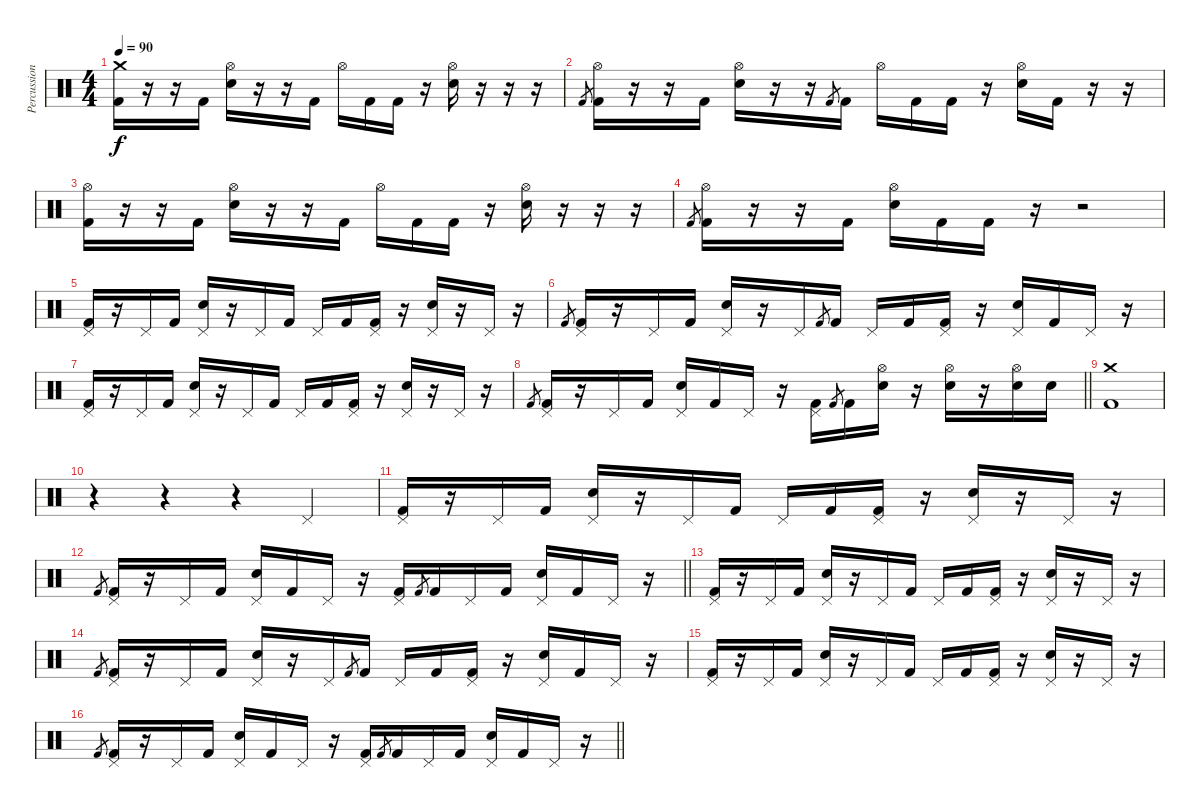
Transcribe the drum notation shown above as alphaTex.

\track ("Percussion" "Percussion") {instrument percussion}
\staff {score}
\articulation defaults
\ts (4 4)
\tempo 90
\clef neutral
\ks c
("Crash medium (hit)" "Kick (hit) 2").16{dy f} r.16 r.16 "Kick (hit) 2".16 ("Hi-Hat (open)" "Snare (hit) 2").16 r.16 r.16 "Kick (hit) 2".16 "Hi-Hat (open)".16 "Kick (hit) 2".16 "Kick (hit) 2".16 r.16 ("Hi-Hat (open)" "Snare (hit) 2").16 r.16 r.16 r.16 |
"Kick (hit) 2".8{gr} ("Hi-Hat (open)" "Kick (hit) 2").16 r.16 r.16 "Kick (hit) 2".16 ("Hi-Hat (open)" "Snare (hit) 2").16 r.16 r.16 "Kick (hit) 2".8{gr} "Kick (hit) 2".16 "Hi-Hat (open)".16 "Kick (hit) 2".16 "Kick (hit) 2".16 r.16 ("Hi-Hat (open)" "Snare (hit) 2").16 "Kick (hit) 2".16 r.16 r.16 |
("Hi-Hat (open)" "Kick (hit) 2").16 r.16 r.16 "Kick (hit) 2".16 ("Hi-Hat (open)" "Snare (hit) 2").16 r.16 r.16 "Kick (hit) 2".16 "Hi-Hat (open)".16 "Kick (hit) 2".16 "Kick (hit) 2".16 r.16 ("Hi-Hat (open)" "Snare (hit) 2").16 r.16 r.16 r.16 |
"Kick (hit) 2".8{gr} ("Hi-Hat (open)" "Kick (hit) 2").16 r.16 r.16 "Kick (hit) 2".16 ("Hi-Hat (open)" "Snare (hit) 2").16 "Kick (hit) 2".16 "Kick (hit) 2".16 r.16 r.2 |
("Pedal Hi-Hat (hit)" "Kick (hit) 2").16 r.16 "Pedal Hi-Hat (hit)".16 "Kick (hit) 2".16 ("Pedal Hi-Hat (hit)" "Snare (hit) 2").16 r.16 "Pedal Hi-Hat (hit)".16 "Kick (hit) 2".16 "Pedal Hi-Hat (hit)".16 "Kick (hit) 2".16 ("Pedal Hi-Hat (hit)" "Kick (hit) 2").16 r.16 ("Pedal Hi-Hat (hit)" "Snare (hit) 2").16 r.16 "Pedal Hi-Hat (hit)".16 r.16 |
"Kick (hit) 2".8{gr} ("Pedal Hi-Hat (hit)" "Kick (hit) 2").16 r.16 "Pedal Hi-Hat (hit)".16 "Kick (hit) 2".16 ("Pedal Hi-Hat (hit)" "Snare (hit) 2").16 r.16 "Pedal Hi-Hat (hit)".16 "Kick (hit) 2".8{gr} "Kick (hit) 2".16 "Pedal Hi-Hat (hit)".16 "Kick (hit) 2".16 ("Pedal Hi-Hat (hit)" "Kick (hit) 2").16 r.16 ("Pedal Hi-Hat (hit)" "Snare (hit) 2").16 "Kick (hit) 2".16 "Pedal Hi-Hat (hit)".16 r.16 |
("Pedal Hi-Hat (hit)" "Kick (hit) 2").16 r.16 "Pedal Hi-Hat (hit)".16 "Kick (hit) 2".16 ("Pedal Hi-Hat (hit)" "Snare (hit) 2").16 r.16 "Pedal Hi-Hat (hit)".16 "Kick (hit) 2".16 "Pedal Hi-Hat (hit)".16 "Kick (hit) 2".16 ("Pedal Hi-Hat (hit)" "Kick (hit) 2").16 r.16 ("Pedal Hi-Hat (hit)" "Snare (hit) 2").16 r.16 "Pedal Hi-Hat (hit)".16 r.16 |
\barLineRight lightlight "Kick (hit) 2".8{gr}
("Pedal Hi-Hat (hit)" "Kick (hit) 2").16 r.16 "Pedal Hi-Hat (hit)".16 "Kick (hit) 2".16 ("Pedal Hi-Hat (hit)" "Snare (hit) 2").16 "Kick (hit) 2".16 "Pedal Hi-Hat (hit)".16 r.16 ("Pedal Hi-Hat (hit)" "Kick (hit) 2").16 "Kick (hit) 2".8{gr} "Kick (hit) 2".16 ("Hi-Hat (open)" "Snare (hit) 2").16 r.16 ("Hi-Hat (open)" "Snare (hit) 2").16 r.16 ("Hi-Hat (open)" "Snare (hit) 2").16 "Snare (hit) 2".16 |
("Crash medium (hit)" "Kick (hit) 2").1 |
r.4 r.4 r.4 "Pedal Hi-Hat (hit)".4 |
("Pedal Hi-Hat (hit)" "Kick (hit) 2").16 r.16 "Pedal Hi-Hat (hit)".16 "Kick (hit) 2".16 ("Pedal Hi-Hat (hit)" "Snare (hit) 2").16 r.16 "Pedal Hi-Hat (hit)".16 "Kick (hit) 2".16 "Pedal Hi-Hat (hit)".16 "Kick (hit) 2".16 ("Pedal Hi-Hat (hit)" "Kick (hit) 2").16 r.16 ("Pedal Hi-Hat (hit)" "Snare (hit) 2").16 r.16 "Pedal Hi-Hat (hit)".16 r.16 |
\barLineRight lightlight "Kick (hit) 2".8{gr}
("Pedal Hi-Hat (hit)" "Kick (hit) 2").16 r.16 "Pedal Hi-Hat (hit)".16 "Kick (hit) 2".16 ("Pedal Hi-Hat (hit)" "Snare (hit) 2").16 "Kick (hit) 2".16 "Pedal Hi-Hat (hit)".16 r.16 ("Pedal Hi-Hat (hit)" "Kick (hit) 2").16 "Kick (hit) 2".8{gr} "Kick (hit) 2".16 "Pedal Hi-Hat (hit)".16 "Kick (hit) 2".16 ("Pedal Hi-Hat (hit)" "Snare (hit) 2").16 "Kick (hit) 2".16 "Pedal Hi-Hat (hit)".16 r.16 |
("Pedal Hi-Hat (hit)" "Kick (hit) 2").16 r.16 "Pedal Hi-Hat (hit)".16 "Kick (hit) 2".16 ("Pedal Hi-Hat (hit)" "Snare (hit) 2").16 r.16 "Pedal Hi-Hat (hit)".16 "Kick (hit) 2".16 "Pedal Hi-Hat (hit)".16 "Kick (hit) 2".16 ("Pedal Hi-Hat (hit)" "Kick (hit) 2").16 r.16 ("Pedal Hi-Hat (hit)" "Snare (hit) 2").16 r.16 "Pedal Hi-Hat (hit)".16 r.16 |
"Kick (hit) 2".8{gr} ("Pedal Hi-Hat (hit)" "Kick (hit) 2").16 r.16 "Pedal Hi-Hat (hit)".16 "Kick (hit) 2".16 ("Pedal Hi-Hat (hit)" "Snare (hit) 2").16 r.16 "Pedal Hi-Hat (hit)".16 "Kick (hit) 2".8{gr} "Kick (hit) 2".16 "Pedal Hi-Hat (hit)".16 "Kick (hit) 2".16 ("Pedal Hi-Hat (hit)" "Kick (hit) 2").16 r.16 ("Pedal Hi-Hat (hit)" "Snare (hit) 2").16 "Kick (hit) 2".16 "Pedal Hi-Hat (hit)".16 r.16 |
("Pedal Hi-Hat (hit)" "Kick (hit) 2").16 r.16 "Pedal Hi-Hat (hit)".16 "Kick (hit) 2".16 ("Pedal Hi-Hat (hit)" "Snare (hit) 2").16 r.16 "Pedal Hi-Hat (hit)".16 "Kick (hit) 2".16 "Pedal Hi-Hat (hit)".16 "Kick (hit) 2".16 ("Pedal Hi-Hat (hit)" "Kick (hit) 2").16 r.16 ("Pedal Hi-Hat (hit)" "Snare (hit) 2").16 r.16 "Pedal Hi-Hat (hit)".16 r.16 |
\barLineRight lightlight "Kick (hit) 2".8{gr}
("Pedal Hi-Hat (hit)" "Kick (hit) 2").16 r.16 "Pedal Hi-Hat (hit)".16 "Kick (hit) 2".16 ("Pedal Hi-Hat (hit)" "Snare (hit) 2").16 "Kick (hit) 2".16 "Pedal Hi-Hat (hit)".16 r.16 ("Pedal Hi-Hat (hit)" "Kick (hit) 2").16 "Kick (hit) 2".8{gr} "Kick (hit) 2".16 "Pedal Hi-Hat (hit)".16 "Kick (hit) 2".16 ("Pedal Hi-Hat (hit)" "Snare (hit) 2").16 "Kick (hit) 2".16 "Pedal Hi-Hat (hit)".16 r.16
